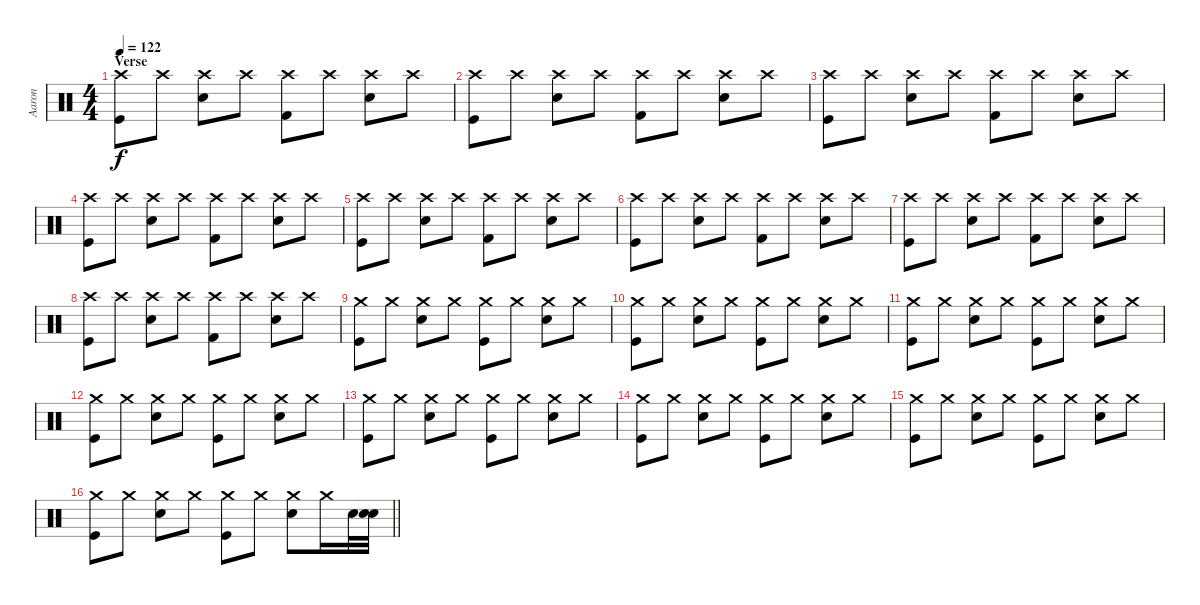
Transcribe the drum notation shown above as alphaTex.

\track ("Aaron" "Aaron") {instrument percussion}
\staff {score}
\articulation defaults
\ts (4 4)
\section ("" "Verse")
\tempo 122
\clef neutral
\ks c
("Crash high (hit)" "Kick (hit)").8{dy f} "Crash high (hit)".8 ("Crash high (hit)" "Snare (hit) 2").8 "Crash high (hit)".8 ("Crash high (hit)" "Kick (hit) 2").8 "Crash high (hit)".8 ("Crash high (hit)" "Snare (hit) 2").8 "Crash high (hit)".8 |
("Crash high (hit)" "Kick (hit)").8 "Crash high (hit)".8 ("Crash high (hit)" "Snare (hit) 2").8 "Crash high (hit)".8 ("Crash high (hit)" "Kick (hit) 2").8 "Crash high (hit)".8 ("Crash high (hit)" "Snare (hit) 2").8 "Crash high (hit)".8 |
("Crash high (hit)" "Kick (hit)").8 "Crash high (hit)".8 ("Crash high (hit)" "Snare (hit) 2").8 "Crash high (hit)".8 ("Crash high (hit)" "Kick (hit) 2").8 "Crash high (hit)".8 ("Crash high (hit)" "Snare (hit) 2").8 "Crash high (hit)".8 |
("Crash high (hit)" "Kick (hit)").8 "Crash high (hit)".8 ("Crash high (hit)" "Snare (hit) 2").8 "Crash high (hit)".8 ("Crash high (hit)" "Kick (hit) 2").8 "Crash high (hit)".8 ("Crash high (hit)" "Snare (hit) 2").8 "Crash high (hit)".8 |
("Crash high (hit)" "Kick (hit)").8 "Crash high (hit)".8 ("Crash high (hit)" "Snare (hit) 2").8 "Crash high (hit)".8 ("Crash high (hit)" "Kick (hit) 2").8 "Crash high (hit)".8 ("Crash high (hit)" "Snare (hit) 2").8 "Crash high (hit)".8 |
("Crash high (hit)" "Kick (hit)").8 "Crash high (hit)".8 ("Crash high (hit)" "Snare (hit) 2").8 "Crash high (hit)".8 ("Crash high (hit)" "Kick (hit) 2").8 "Crash high (hit)".8 ("Crash high (hit)" "Snare (hit) 2").8 "Crash high (hit)".8 |
("Crash high (hit)" "Kick (hit)").8 "Crash high (hit)".8 ("Crash high (hit)" "Snare (hit) 2").8 "Crash high (hit)".8 ("Crash high (hit)" "Kick (hit) 2").8 "Crash high (hit)".8 ("Crash high (hit)" "Snare (hit) 2").8 "Crash high (hit)".8 |
("Crash high (hit)" "Kick (hit)").8 "Crash high (hit)".8 ("Crash high (hit)" "Snare (hit) 2").8 "Crash high (hit)".8 ("Crash high (hit)" "Kick (hit) 2").8 "Crash high (hit)".8 ("Crash high (hit)" "Snare (hit) 2").8 "Crash high (hit)".8 |
("Crash medium (hit)" "Kick (hit)").8 "Crash medium (hit)".8 ("Crash medium (hit)" "Snare (hit) 2").8 "Crash medium (hit)".8 ("Crash medium (hit)" "Kick (hit)").8 "Crash medium (hit)".8 ("Crash medium (hit)" "Snare (hit) 2").8 "Crash medium (hit)".8 |
("Crash medium (hit)" "Kick (hit)").8 "Crash medium (hit)".8 ("Crash medium (hit)" "Snare (hit) 2").8 "Crash medium (hit)".8 ("Crash medium (hit)" "Kick (hit)").8 "Crash medium (hit)".8 ("Crash medium (hit)" "Snare (hit) 2").8 "Crash medium (hit)".8 |
("Crash medium (hit)" "Kick (hit)").8 "Crash medium (hit)".8 ("Crash medium (hit)" "Snare (hit) 2").8 "Crash medium (hit)".8 ("Crash medium (hit)" "Kick (hit)").8 "Crash medium (hit)".8 ("Crash medium (hit)" "Snare (hit) 2").8 "Crash medium (hit)".8 |
("Crash medium (hit)" "Kick (hit)").8 "Crash medium (hit)".8 ("Crash medium (hit)" "Snare (hit) 2").8 "Crash medium (hit)".8 ("Crash medium (hit)" "Kick (hit)").8 "Crash medium (hit)".8 ("Crash medium (hit)" "Snare (hit) 2").8 "Crash medium (hit)".8 |
("Crash medium (hit)" "Kick (hit)").8 "Crash medium (hit)".8 ("Crash medium (hit)" "Snare (hit) 2").8 "Crash medium (hit)".8 ("Crash medium (hit)" "Kick (hit)").8 "Crash medium (hit)".8 ("Crash medium (hit)" "Snare (hit) 2").8 "Crash medium (hit)".8 |
("Crash medium (hit)" "Kick (hit)").8 "Crash medium (hit)".8 ("Crash medium (hit)" "Snare (hit) 2").8 "Crash medium (hit)".8 ("Crash medium (hit)" "Kick (hit)").8 "Crash medium (hit)".8 ("Crash medium (hit)" "Snare (hit) 2").8 "Crash medium (hit)".8 |
("Crash medium (hit)" "Kick (hit)").8 "Crash medium (hit)".8 ("Crash medium (hit)" "Snare (hit) 2").8 "Crash medium (hit)".8 ("Crash medium (hit)" "Kick (hit)").8 "Crash medium (hit)".8 ("Crash medium (hit)" "Snare (hit) 2").8 "Crash medium (hit)".8 |
\barLineRight lightlight
("Crash medium (hit)" "Kick (hit)").8 "Crash medium (hit)".8 ("Crash medium (hit)" "Snare (hit) 2").8 "Crash medium (hit)".8 ("Crash medium (hit)" "Kick (hit)").8 "Crash medium (hit)".8 ("Crash medium (hit)" "Snare (hit) 2").8 "Crash medium (hit)".16 "Snare (hit) 2".32 ("Snare (hit)"{t} "Snare (hit) 2").32
